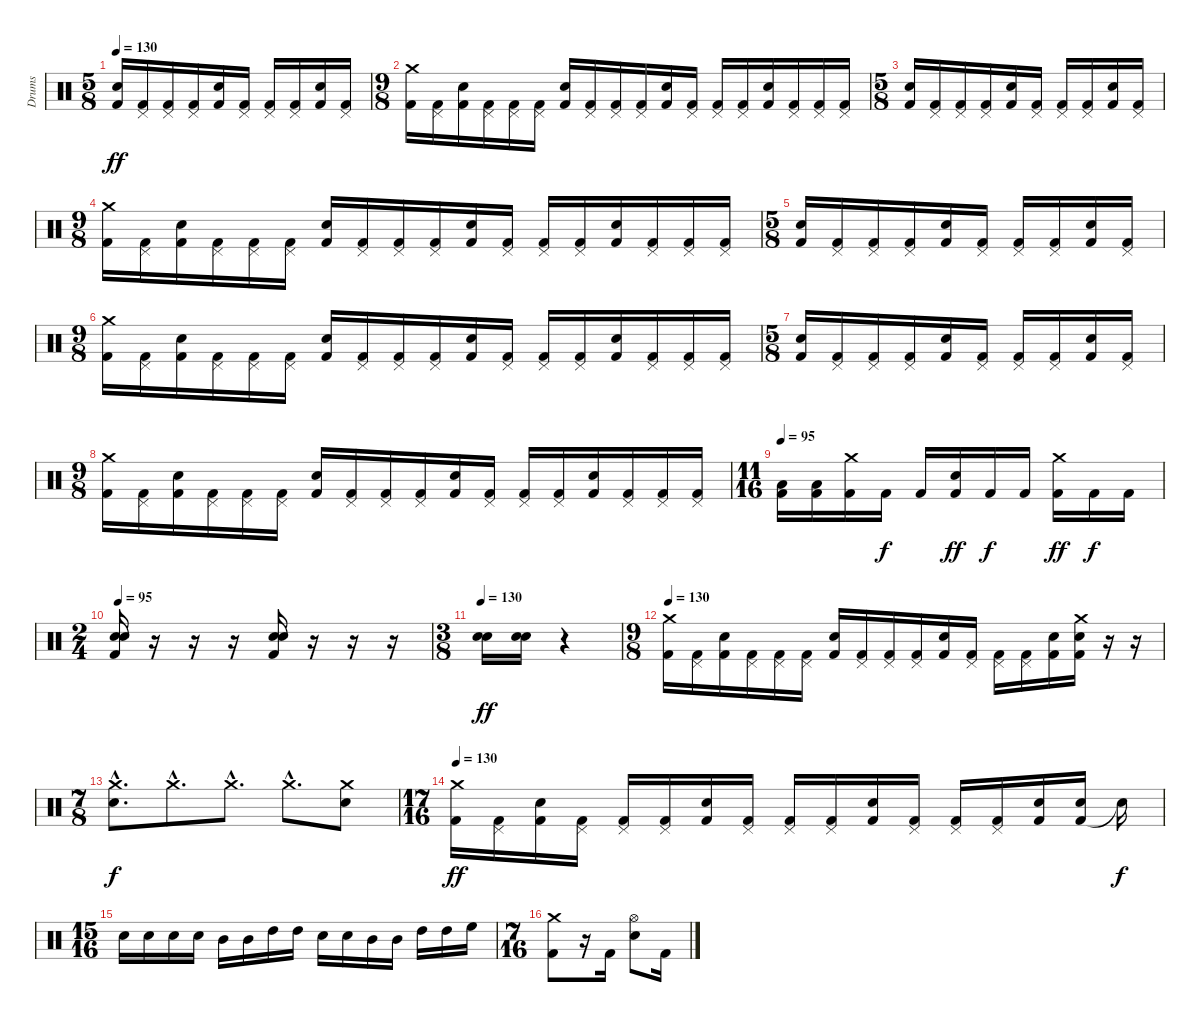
\track ("Drums" "Drums") {instrument percussion}
\staff {score}
\articulation defaults
\ts (5 8)
\tempo 130
\clef neutral
\ks c
("Kick (hit) 2" "Electric Snare (hit)").16{dy ff} ("Kick (hit) 2" "Pedal Hi-Hat (hit)").16 ("Kick (hit) 2" "Pedal Hi-Hat (hit)").16 ("Kick (hit) 2" "Pedal Hi-Hat (hit)").16 ("Kick (hit) 2" "Electric Snare (hit)").16 ("Kick (hit) 2" "Pedal Hi-Hat (hit)").16 ("Kick (hit) 2" "Pedal Hi-Hat (hit)").16 ("Kick (hit) 2" "Pedal Hi-Hat (hit)").16 ("Kick (hit) 2" "Electric Snare (hit)").16 ("Kick (hit) 2" "Pedal Hi-Hat (hit)").16 |
\ts (9 8)
("Kick (hit) 2" "Crash medium (hit)").16 ("Kick (hit) 2" "Pedal Hi-Hat (hit)").16 ("Kick (hit) 2" "Electric Snare (hit)").16 ("Kick (hit) 2" "Pedal Hi-Hat (hit)").16 ("Kick (hit) 2" "Pedal Hi-Hat (hit)").16 ("Kick (hit) 2" "Pedal Hi-Hat (hit)").16 ("Kick (hit) 2" "Electric Snare (hit)").16 ("Kick (hit) 2" "Pedal Hi-Hat (hit)").16 ("Kick (hit) 2" "Pedal Hi-Hat (hit)").16 ("Kick (hit) 2" "Pedal Hi-Hat (hit)").16 ("Kick (hit) 2" "Electric Snare (hit)").16 ("Kick (hit) 2" "Pedal Hi-Hat (hit)").16 ("Kick (hit) 2" "Pedal Hi-Hat (hit)").16 ("Kick (hit) 2" "Pedal Hi-Hat (hit)").16 ("Kick (hit) 2" "Electric Snare (hit)").16 ("Kick (hit) 2" "Pedal Hi-Hat (hit)").16 ("Kick (hit) 2" "Pedal Hi-Hat (hit)").16 ("Kick (hit) 2" "Pedal Hi-Hat (hit)").16 |
\ts (5 8)
("Kick (hit) 2" "Electric Snare (hit)").16 ("Kick (hit) 2" "Pedal Hi-Hat (hit)").16 ("Kick (hit) 2" "Pedal Hi-Hat (hit)").16 ("Kick (hit) 2" "Pedal Hi-Hat (hit)").16 ("Kick (hit) 2" "Electric Snare (hit)").16 ("Kick (hit) 2" "Pedal Hi-Hat (hit)").16 ("Kick (hit) 2" "Pedal Hi-Hat (hit)").16 ("Kick (hit) 2" "Pedal Hi-Hat (hit)").16 ("Kick (hit) 2" "Electric Snare (hit)").16 ("Kick (hit) 2" "Pedal Hi-Hat (hit)").16 |
\ts (9 8)
("Kick (hit) 2" "Crash medium (hit)").16 ("Kick (hit) 2" "Pedal Hi-Hat (hit)").16 ("Kick (hit) 2" "Electric Snare (hit)").16 ("Kick (hit) 2" "Pedal Hi-Hat (hit)").16 ("Kick (hit) 2" "Pedal Hi-Hat (hit)").16 ("Kick (hit) 2" "Pedal Hi-Hat (hit)").16 ("Kick (hit) 2" "Electric Snare (hit)").16 ("Kick (hit) 2" "Pedal Hi-Hat (hit)").16 ("Kick (hit) 2" "Pedal Hi-Hat (hit)").16 ("Kick (hit) 2" "Pedal Hi-Hat (hit)").16 ("Kick (hit) 2" "Electric Snare (hit)").16 ("Kick (hit) 2" "Pedal Hi-Hat (hit)").16 ("Kick (hit) 2" "Pedal Hi-Hat (hit)").16 ("Kick (hit) 2" "Pedal Hi-Hat (hit)").16 ("Kick (hit) 2" "Electric Snare (hit)").16 ("Kick (hit) 2" "Pedal Hi-Hat (hit)").16 ("Kick (hit) 2" "Pedal Hi-Hat (hit)").16 ("Kick (hit) 2" "Pedal Hi-Hat (hit)").16 |
\ts (5 8)
("Kick (hit) 2" "Electric Snare (hit)").16 ("Kick (hit) 2" "Pedal Hi-Hat (hit)").16 ("Kick (hit) 2" "Pedal Hi-Hat (hit)").16 ("Kick (hit) 2" "Pedal Hi-Hat (hit)").16 ("Kick (hit) 2" "Electric Snare (hit)").16 ("Kick (hit) 2" "Pedal Hi-Hat (hit)").16 ("Kick (hit) 2" "Pedal Hi-Hat (hit)").16 ("Kick (hit) 2" "Pedal Hi-Hat (hit)").16 ("Kick (hit) 2" "Electric Snare (hit)").16 ("Kick (hit) 2" "Pedal Hi-Hat (hit)").16 |
\ts (9 8)
("Kick (hit) 2" "Crash medium (hit)").16 ("Kick (hit) 2" "Pedal Hi-Hat (hit)").16 ("Kick (hit) 2" "Electric Snare (hit)").16 ("Kick (hit) 2" "Pedal Hi-Hat (hit)").16 ("Kick (hit) 2" "Pedal Hi-Hat (hit)").16 ("Kick (hit) 2" "Pedal Hi-Hat (hit)").16 ("Kick (hit) 2" "Electric Snare (hit)").16 ("Kick (hit) 2" "Pedal Hi-Hat (hit)").16 ("Kick (hit) 2" "Pedal Hi-Hat (hit)").16 ("Kick (hit) 2" "Pedal Hi-Hat (hit)").16 ("Kick (hit) 2" "Electric Snare (hit)").16 ("Kick (hit) 2" "Pedal Hi-Hat (hit)").16 ("Kick (hit) 2" "Pedal Hi-Hat (hit)").16 ("Kick (hit) 2" "Pedal Hi-Hat (hit)").16 ("Kick (hit) 2" "Electric Snare (hit)").16 ("Kick (hit) 2" "Pedal Hi-Hat (hit)").16 ("Kick (hit) 2" "Pedal Hi-Hat (hit)").16 ("Kick (hit) 2" "Pedal Hi-Hat (hit)").16 |
\ts (5 8)
("Kick (hit) 2" "Electric Snare (hit)").16 ("Kick (hit) 2" "Pedal Hi-Hat (hit)").16 ("Kick (hit) 2" "Pedal Hi-Hat (hit)").16 ("Kick (hit) 2" "Pedal Hi-Hat (hit)").16 ("Kick (hit) 2" "Electric Snare (hit)").16 ("Kick (hit) 2" "Pedal Hi-Hat (hit)").16 ("Kick (hit) 2" "Pedal Hi-Hat (hit)").16 ("Kick (hit) 2" "Pedal Hi-Hat (hit)").16 ("Kick (hit) 2" "Electric Snare (hit)").16 ("Kick (hit) 2" "Pedal Hi-Hat (hit)").16 |
\ts (9 8)
("Kick (hit) 2" "Crash medium (hit)").16 ("Kick (hit) 2" "Pedal Hi-Hat (hit)").16 ("Kick (hit) 2" "Electric Snare (hit)").16 ("Kick (hit) 2" "Pedal Hi-Hat (hit)").16 ("Kick (hit) 2" "Pedal Hi-Hat (hit)").16 ("Kick (hit) 2" "Pedal Hi-Hat (hit)").16 ("Kick (hit) 2" "Electric Snare (hit)").16 ("Kick (hit) 2" "Pedal Hi-Hat (hit)").16 ("Kick (hit) 2" "Pedal Hi-Hat (hit)").16 ("Kick (hit) 2" "Pedal Hi-Hat (hit)").16 ("Kick (hit) 2" "Electric Snare (hit)").16 ("Kick (hit) 2" "Pedal Hi-Hat (hit)").16 ("Kick (hit) 2" "Pedal Hi-Hat (hit)").16 ("Kick (hit) 2" "Pedal Hi-Hat (hit)").16 ("Kick (hit) 2" "Electric Snare (hit)").16 ("Kick (hit) 2" "Pedal Hi-Hat (hit)").16 ("Kick (hit) 2" "Pedal Hi-Hat (hit)").16 ("Kick (hit) 2" "Pedal Hi-Hat (hit)").16 |
\ts (11 16)
\tempo 95
("Kick (hit) 2" "Low Tom (hit)").16 ("Kick (hit) 2" "Low Tom (hit)").16 ("Kick (hit) 2" "Crash medium (hit)").16 "Kick (hit) 2".16{dy f} "Kick (hit) 2".16 ("Kick (hit) 2" "Electric Snare (hit)").16{dy ff} "Kick (hit) 2".16{dy f} "Kick (hit) 2".16 ("Kick (hit) 2" "Crash medium (hit)").16{dy ff} "Kick (hit) 2".16{dy f} "Kick (hit) 2".16 |
\ts (2 4)
\tempo 95
("Kick (hit) 2" "Electric Snare (hit)" "Snare (hit) 2").16 r.16 r.16 r.16 ("Kick (hit) 2" "Electric Snare (hit)" "Snare (hit) 2").16 r.16 r.16 r.16 |
\ts (3 8)
\tempo 130
("Snare (hit) 2" "Electric Snare (hit)").16{dy ff} ("Snare (hit) 2" "Electric Snare (hit)").16 r.4 |
\ts (9 8)
\tempo 130
("Kick (hit) 2" "Crash medium (hit)").16 ("Kick (hit) 2" "Pedal Hi-Hat (hit)").16 ("Kick (hit) 2" "Electric Snare (hit)").16 ("Kick (hit) 2" "Pedal Hi-Hat (hit)").16 ("Kick (hit) 2" "Pedal Hi-Hat (hit)").16 ("Kick (hit) 2" "Pedal Hi-Hat (hit)").16 ("Kick (hit) 2" "Electric Snare (hit)").16 ("Kick (hit) 2" "Pedal Hi-Hat (hit)").16 ("Kick (hit) 2" "Pedal Hi-Hat (hit)").16 ("Kick (hit) 2" "Pedal Hi-Hat (hit)").16 ("Kick (hit) 2" "Electric Snare (hit)").16 ("Kick (hit) 2" "Pedal Hi-Hat (hit)").16 ("Kick (hit) 2" "Pedal Hi-Hat (hit)").16 ("Kick (hit) 2" "Pedal Hi-Hat (hit)").16 ("Kick (hit) 2" "Electric Snare (hit)").16 ("Kick (hit) 2" "Electric Snare (hit)" "Crash medium (hit)").16 r.16 r.16 |
\ts (7 8)
("Electric Snare (hit)"{hac} "Crash medium (hit)"{hac}).8{d dy f} "Crash medium (hit)"{hac}.8{d} "Crash medium (hit)"{hac}.8{d} "Crash medium (hit)"{hac}.8{d} ("Electric Snare (hit)" "Crash medium (hit)").8 |
\ts (17 16)
\tempo 130
("Kick (hit) 2" "Crash medium (hit)").16{dy ff} ("Kick (hit) 2" "Pedal Hi-Hat (hit)").16 ("Kick (hit) 2" "Electric Snare (hit)").16 ("Kick (hit) 2" "Pedal Hi-Hat (hit)").16 ("Kick (hit) 2" "Pedal Hi-Hat (hit)").16 ("Kick (hit) 2" "Pedal Hi-Hat (hit)").16 ("Kick (hit) 2" "Electric Snare (hit)").16 ("Kick (hit) 2" "Pedal Hi-Hat (hit)").16 ("Kick (hit) 2" "Pedal Hi-Hat (hit)").16 ("Kick (hit) 2" "Pedal Hi-Hat (hit)").16 ("Kick (hit) 2" "Electric Snare (hit)").16 ("Kick (hit) 2" "Pedal Hi-Hat (hit)").16 ("Kick (hit) 2" "Pedal Hi-Hat (hit)").16 ("Kick (hit) 2" "Pedal Hi-Hat (hit)").16 ("Kick (hit) 2" "Electric Snare (hit)").16 ("Kick (hit) 2" "Electric Snare (hit)").16 "Snare (hit)"{t}.16{dy f} |
\ts (15 16)
"Snare (hit) 2".16 "Electric Snare (hit)".16 "Electric Snare (hit)".16 "Snare (hit) 2".16 "Mid Tom (hit)".16 "Mid Tom (hit)".16 "High Tom (hit)".16 "High Tom (hit)".16 "Electric Snare (hit)".16 "Electric Snare (hit)".16 "Mid Tom (hit)".16 "Mid Tom (hit)".16 "High Tom (hit)".16 "High Tom (hit)".16 "High Floor Tom (hit)".16 |
\ts (7 16)
("Kick (hit) 2" "Crash medium (hit)").8 r.16 "Kick (hit) 2".16 ("Electric Snare (hit)" "Hi-Hat (open)").8 "Kick (hit) 2".16
